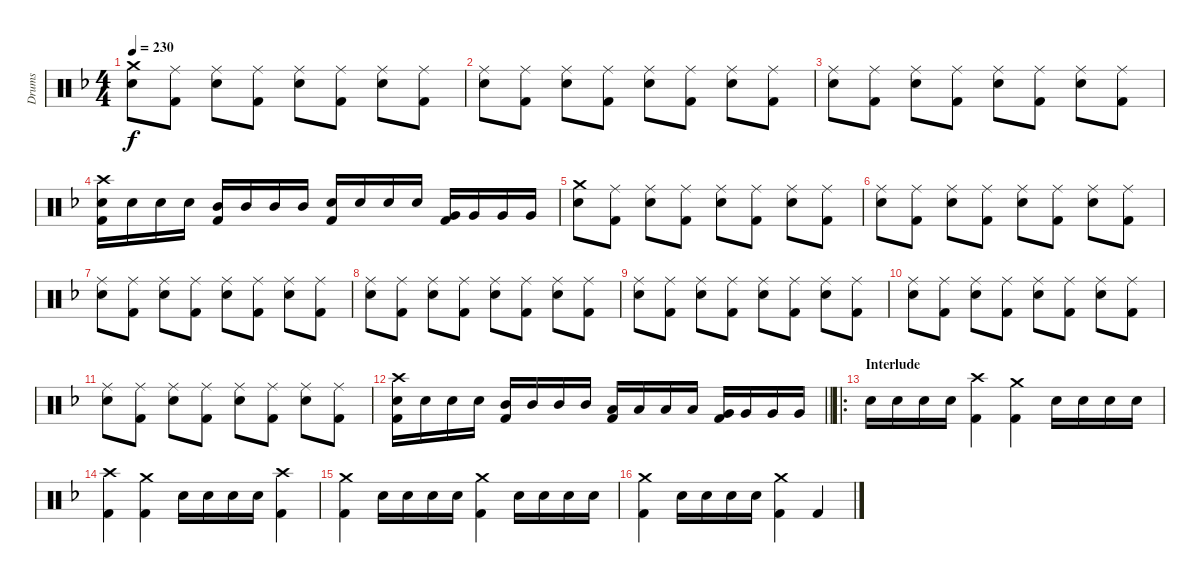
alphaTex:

\track ("Drums" "Drums") {instrument percussion}
\staff {score}
\articulation defaults
\ts (4 4)
\tempo 230
\clef neutral
\ks f
("Crash medium (hit)" "Snare (hit) 2").8{dy f} ("Ride (middle)" "Kick (hit) 2").8 ("Ride (middle)" "Snare (hit) 2").8 ("Ride (middle)" "Kick (hit) 2").8 ("Ride (middle)" "Snare (hit) 2").8 ("Ride (middle)" "Kick (hit) 2").8 ("Ride (middle)" "Snare (hit) 2").8 ("Ride (middle)" "Kick (hit) 2").8 |
("Ride (middle)" "Snare (hit) 2").8 ("Ride (middle)" "Kick (hit) 2").8 ("Ride (middle)" "Snare (hit) 2").8 ("Ride (middle)" "Kick (hit) 2").8 ("Ride (middle)" "Snare (hit) 2").8 ("Ride (middle)" "Kick (hit) 2").8 ("Ride (middle)" "Snare (hit) 2").8 ("Ride (middle)" "Kick (hit) 2").8 |
("Ride (middle)" "Snare (hit) 2").8 ("Ride (middle)" "Kick (hit) 2").8 ("Ride (middle)" "Snare (hit) 2").8 ("Ride (middle)" "Kick (hit) 2").8 ("Ride (middle)" "Snare (hit) 2").8 ("Ride (middle)" "Kick (hit) 2").8 ("Ride (middle)" "Snare (hit) 2").8 ("Ride (middle)" "Kick (hit) 2").8 |
("Crash high (hit)" "Snare (hit) 2" "Kick (hit) 2").16 "Snare (hit) 2".16 "Snare (hit) 2".16 "Snare (hit) 2".16 ("Mid Tom (hit)" "Kick (hit) 2").16 "Mid Tom (hit)".16 "Mid Tom (hit)".16 "Mid Tom (hit)".16 ("Snare (hit) 2" "Kick (hit) 2").16 "Snare (hit) 2".16 "Snare (hit) 2".16 "Snare (hit) 2".16 ("Very Low Tom (hit)" "Kick (hit) 2").16 "Very Low Tom (hit)".16 "Very Low Tom (hit)".16 "Very Low Tom (hit)".16 |
("Crash medium (hit)" "Snare (hit) 2").8 ("Ride (middle)" "Kick (hit) 2").8 ("Ride (middle)" "Snare (hit) 2").8 ("Ride (middle)" "Kick (hit) 2").8 ("Ride (middle)" "Snare (hit) 2").8 ("Ride (middle)" "Kick (hit) 2").8 ("Ride (middle)" "Snare (hit) 2").8 ("Ride (middle)" "Kick (hit) 2").8 |
("Ride (middle)" "Snare (hit) 2").8 ("Ride (middle)" "Kick (hit) 2").8 ("Ride (middle)" "Snare (hit) 2").8 ("Ride (middle)" "Kick (hit) 2").8 ("Ride (middle)" "Snare (hit) 2").8 ("Ride (middle)" "Kick (hit) 2").8 ("Ride (middle)" "Snare (hit) 2").8 ("Ride (middle)" "Kick (hit) 2").8 |
("Ride (middle)" "Snare (hit) 2").8 ("Ride (middle)" "Kick (hit) 2").8 ("Ride (middle)" "Snare (hit) 2").8 ("Ride (middle)" "Kick (hit) 2").8 ("Ride (middle)" "Snare (hit) 2").8 ("Ride (middle)" "Kick (hit) 2").8 ("Ride (middle)" "Snare (hit) 2").8 ("Ride (middle)" "Kick (hit) 2").8 |
("Ride (middle)" "Snare (hit) 2").8 ("Ride (middle)" "Kick (hit) 2").8 ("Ride (middle)" "Snare (hit) 2").8 ("Ride (middle)" "Kick (hit) 2").8 ("Ride (middle)" "Snare (hit) 2").8 ("Ride (middle)" "Kick (hit) 2").8 ("Ride (middle)" "Snare (hit) 2").8 ("Ride (middle)" "Kick (hit) 2").8 |
("Ride (middle)" "Snare (hit) 2").8 ("Ride (middle)" "Kick (hit) 2").8 ("Ride (middle)" "Snare (hit) 2").8 ("Ride (middle)" "Kick (hit) 2").8 ("Ride (middle)" "Snare (hit) 2").8 ("Ride (middle)" "Kick (hit) 2").8 ("Ride (middle)" "Snare (hit) 2").8 ("Ride (middle)" "Kick (hit) 2").8 |
("Ride (middle)" "Snare (hit) 2").8 ("Ride (middle)" "Kick (hit) 2").8 ("Ride (middle)" "Snare (hit) 2").8 ("Ride (middle)" "Kick (hit) 2").8 ("Ride (middle)" "Snare (hit) 2").8 ("Ride (middle)" "Kick (hit) 2").8 ("Ride (middle)" "Snare (hit) 2").8 ("Ride (middle)" "Kick (hit) 2").8 |
("Ride (middle)" "Snare (hit) 2").8 ("Ride (middle)" "Kick (hit) 2").8 ("Ride (middle)" "Snare (hit) 2").8 ("Ride (middle)" "Kick (hit) 2").8 ("Ride (middle)" "Snare (hit) 2").8 ("Ride (middle)" "Kick (hit) 2").8 ("Ride (middle)" "Snare (hit) 2").8 ("Ride (middle)" "Kick (hit) 2").8 |
\barLineRight lightlight
("Crash high (hit)" "Snare (hit) 2" "Kick (hit) 2").16 "Snare (hit) 2".16 "Snare (hit) 2".16 "Snare (hit) 2".16 ("Mid Tom (hit)" "Kick (hit) 2").16 "Mid Tom (hit)".16 "Mid Tom (hit)".16 "Mid Tom (hit)".16 ("Low Tom (hit)" "Kick (hit) 2").16 "Low Tom (hit)".16 "Low Tom (hit)".16 "Low Tom (hit)".16 ("Very Low Tom (hit)" "Kick (hit) 2").16 "Very Low Tom (hit)".16 "Very Low Tom (hit)".16 "Very Low Tom (hit)".16 |
\ro
\section ("" "Interlude")
"Snare (hit) 2".16 "Snare (hit) 2".16 "Snare (hit) 2".16 "Snare (hit) 2".16 ("Crash high (hit)" "Kick (hit) 2").4 ("Crash medium (hit)" "Kick (hit) 2").4 "Snare (hit) 2".16 "Snare (hit) 2".16 "Snare (hit) 2".16 "Snare (hit) 2".16 |
("Crash high (hit)" "Kick (hit) 2").4 ("Crash medium (hit)" "Kick (hit) 2").4 "Snare (hit) 2".16 "Snare (hit) 2".16 "Snare (hit) 2".16 "Snare (hit) 2".16 ("Crash high (hit)" "Kick (hit) 2").4 |
("Crash medium (hit)" "Kick (hit) 2").4 "Snare (hit) 2".16 "Snare (hit) 2".16 "Snare (hit) 2".16 "Snare (hit) 2".16 ("Crash medium (hit)" "Kick (hit) 2").4 "Snare (hit) 2".16 "Snare (hit) 2".16 "Snare (hit) 2".16 "Snare (hit) 2".16 |
("Crash medium (hit)" "Kick (hit) 2").4 "Snare (hit) 2".16 "Snare (hit) 2".16 "Snare (hit) 2".16 "Snare (hit) 2".16 ("Crash medium (hit)" "Kick (hit) 2").4 "Kick (hit) 2".4
